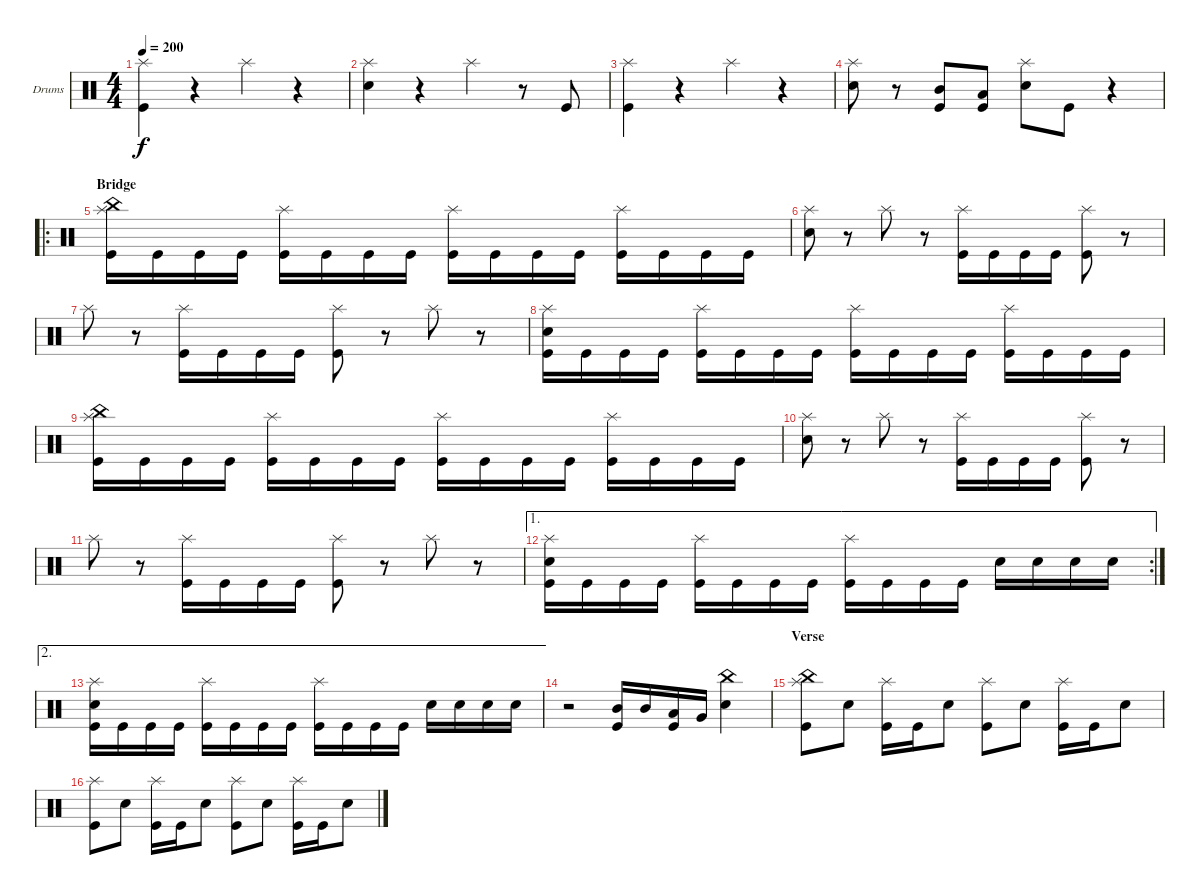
\defaultSystemsLayout 4
\bracketExtendMode groupsimilarinstruments
\firstSystemTrackNameOrientation horizontal
\otherSystemsTrackNameOrientation horizontal
\track ("Drumkit" "Drums") {instrument percussion}
\staff {score}
\articulation defaults
\ts (4 4)
\tempo 200
\clef neutral
\ks c
("Splash (hit)" "Kick (hit)").4{dy f} r.4 "Splash (hit)".4 r.4 |
("Splash (hit)" "Snare (hit) 2").4 r.4 "Splash (hit)".4 r.8 "Kick (hit)".8 |
("Splash (hit)" "Kick (hit)").4 r.4 "Splash (hit)".4 r.4 |
("Snare (hit) 2" "Splash (hit)").8 r.8 ("Kick (hit)" "Mid Tom (hit)").8 ("Kick (hit)" "Low Tom (hit)").8 ("Snare (hit) 2" "Splash (hit)").8 "Kick (hit)".8 r.4 |
\ro
\section ("" "Bridge")
("Kick (hit)" "Splash (hit)" "China (hit)").16 "Kick (hit)".16 "Kick (hit)".16 "Kick (hit)".16 ("Kick (hit)" "Splash (hit)").16 "Kick (hit)".16 "Kick (hit)".16 "Kick (hit)".16 ("Kick (hit)" "Splash (hit)").16 "Kick (hit)".16 "Kick (hit)".16 "Kick (hit)".16 ("Kick (hit)" "Splash (hit)").16 "Kick (hit)".16 "Kick (hit)".16 "Kick (hit)".16 |
("Splash (hit)" "Snare (hit) 2").8 r.8 "Splash (hit)".8 r.8 ("Kick (hit)" "Splash (hit)").16 "Kick (hit)".16 "Kick (hit)".16 "Kick (hit)".16 ("Splash (hit)" "Kick (hit)").8 r.8 |
"Splash (hit)".8 r.8 ("Kick (hit)" "Splash (hit)").16 "Kick (hit)".16 "Kick (hit)".16 "Kick (hit)".16 ("Splash (hit)" "Kick (hit)").8 r.8 "Splash (hit)".8 r.8 |
("Kick (hit)" "Splash (hit)" "Snare (hit) 2").16 "Kick (hit)".16 "Kick (hit)".16 "Kick (hit)".16 ("Kick (hit)" "Splash (hit)").16 "Kick (hit)".16 "Kick (hit)".16 "Kick (hit)".16 ("Kick (hit)" "Splash (hit)").16 "Kick (hit)".16 "Kick (hit)".16 "Kick (hit)".16 ("Kick (hit)" "Splash (hit)").16 "Kick (hit)".16 "Kick (hit)".16 "Kick (hit)".16 |
("Kick (hit)" "Splash (hit)" "China (hit)").16 "Kick (hit)".16 "Kick (hit)".16 "Kick (hit)".16 ("Kick (hit)" "Splash (hit)").16 "Kick (hit)".16 "Kick (hit)".16 "Kick (hit)".16 ("Kick (hit)" "Splash (hit)").16 "Kick (hit)".16 "Kick (hit)".16 "Kick (hit)".16 ("Kick (hit)" "Splash (hit)").16 "Kick (hit)".16 "Kick (hit)".16 "Kick (hit)".16 |
("Splash (hit)" "Snare (hit) 2").8 r.8 "Splash (hit)".8 r.8 ("Kick (hit)" "Splash (hit)").16 "Kick (hit)".16 "Kick (hit)".16 "Kick (hit)".16 ("Splash (hit)" "Kick (hit)").8 r.8 |
"Splash (hit)".8 r.8 ("Kick (hit)" "Splash (hit)").16 "Kick (hit)".16 "Kick (hit)".16 "Kick (hit)".16 ("Splash (hit)" "Kick (hit)").8 r.8 "Splash (hit)".8 r.8 |
\ae 1
\rc 2
("Kick (hit)" "Splash (hit)" "Snare (hit) 2").16 "Kick (hit)".16 "Kick (hit)".16 "Kick (hit)".16 ("Kick (hit)" "Splash (hit)").16 "Kick (hit)".16 "Kick (hit)".16 "Kick (hit)".16 ("Kick (hit)" "Splash (hit)").16 "Kick (hit)".16 "Kick (hit)".16 "Kick (hit)".16 "Snare (hit) 2".16 "Snare (hit) 2".16 "Snare (hit) 2".16 "Snare (hit) 2".16 |
\ae 2
("Kick (hit)" "Splash (hit)" "Snare (hit) 2").16 "Kick (hit)".16 "Kick (hit)".16 "Kick (hit)".16 ("Kick (hit)" "Splash (hit)").16 "Kick (hit)".16 "Kick (hit)".16 "Kick (hit)".16 ("Kick (hit)" "Splash (hit)").16 "Kick (hit)".16 "Kick (hit)".16 "Kick (hit)".16 "Snare (hit) 2".16 "Snare (hit) 2".16 "Snare (hit) 2".16 "Snare (hit) 2".16 |
r.2 ("Mid Tom (hit)" "Kick (hit)").16 "Mid Tom (hit)".16 ("Low Tom (hit)" "Kick (hit)").16 "Very Low Tom (hit)".16 ("Snare (hit) 2" "China (hit)").4 |
\section ("" "Verse")
("Splash (hit)" "Kick (hit)" "China (hit)").8 "Snare (hit) 2".8 ("Splash (hit)" "Kick (hit)").16 "Kick (hit)".16 "Snare (hit) 2".8 ("Splash (hit)" "Kick (hit)").8 "Snare (hit) 2".8 ("Splash (hit)" "Kick (hit)").16 "Kick (hit)".16 "Snare (hit) 2".8 |
("Splash (hit)" "Kick (hit)").8 "Snare (hit) 2".8 ("Splash (hit)" "Kick (hit)").16 "Kick (hit)".16 "Snare (hit) 2".8 ("Splash (hit)" "Kick (hit)").8 "Snare (hit) 2".8 ("Splash (hit)" "Kick (hit)").16 "Kick (hit)".16 "Snare (hit) 2".8
